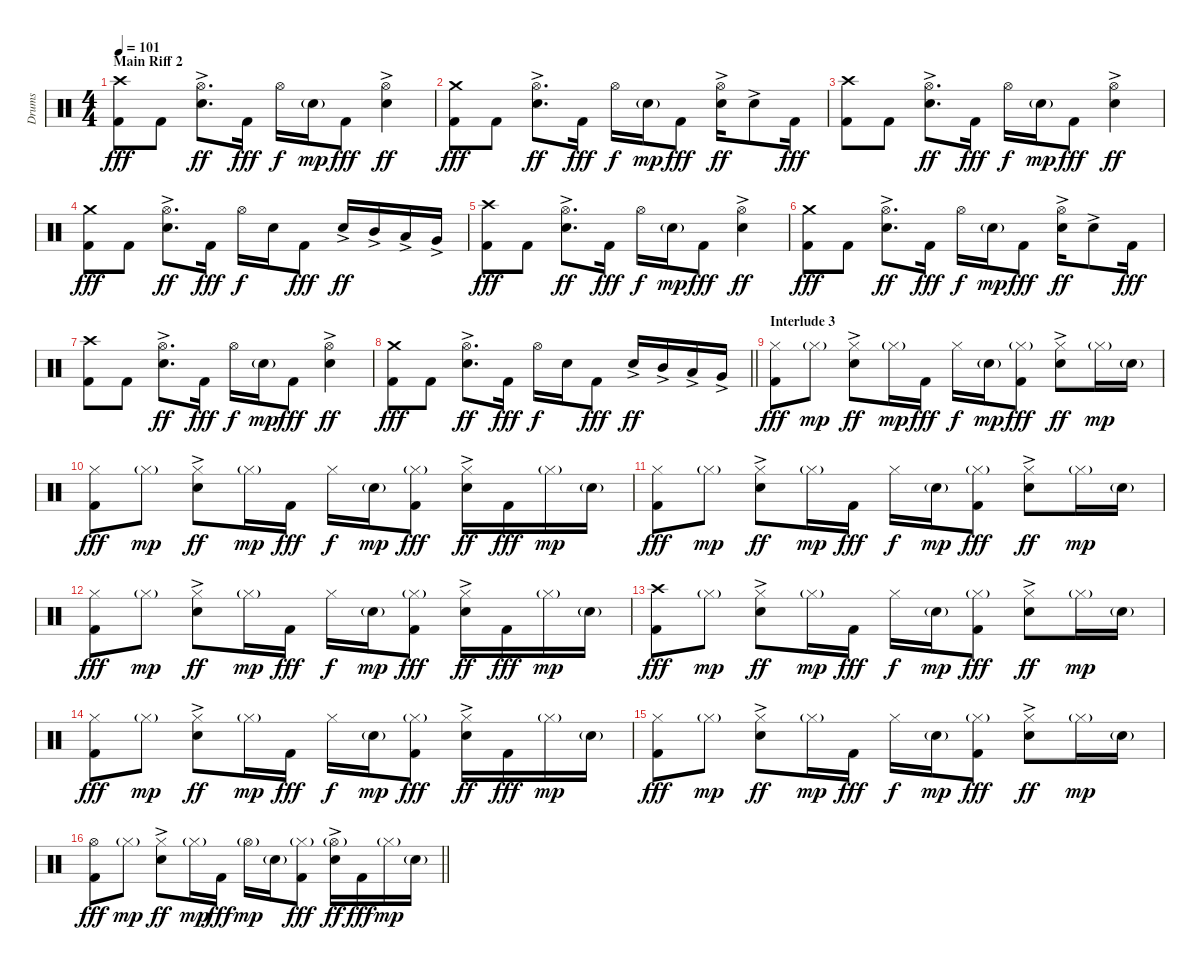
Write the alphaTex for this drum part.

\track ("Drums" "Drums") {instrument percussion}
\staff {score}
\articulation defaults
\ts (4 4)
\section ("" "Main Riff 2")
\tempo 101
\clef neutral
\ks c
("Crash high (hit)" "Kick (hit) 2").8{dy fff} "Kick (hit) 2".8 ("Hi-Hat (open)" "Electric Snare (hit)"{ac}).8{d dy ff} "Kick (hit) 2".16{dy fff} "Hi-Hat (open)".16{dy f} "Snare (hit) 2"{g}.16{dy mp} "Kick (hit) 2".8{dy fff} ("Hi-Hat (open)" "Electric Snare (hit)"{ac}).4{dy ff} |
("Crash medium (hit)" "Kick (hit) 2").8{dy fff} "Kick (hit) 2".8 ("Hi-Hat (open)" "Electric Snare (hit)"{ac}).8{d dy ff} "Kick (hit) 2".16{dy fff} "Hi-Hat (open)".16{dy f} "Snare (hit) 2"{g}.16{dy mp} "Kick (hit) 2".8{dy fff} ("Hi-Hat (open)" "Electric Snare (hit)"{ac}).16{dy ff} "Electric Snare (hit)"{ac}.8 "Kick (hit) 2".16{dy fff} |
("Crash high (hit)" "Kick (hit) 2").8 "Kick (hit) 2".8 ("Hi-Hat (open)" "Electric Snare (hit)"{ac}).8{d dy ff} "Kick (hit) 2".16{dy fff} "Hi-Hat (open)".16{dy f} "Snare (hit) 2"{g}.16{dy mp} "Kick (hit) 2".8{dy fff} ("Hi-Hat (open)" "Electric Snare (hit)"{ac}).4{dy ff} |
("Crash medium (hit)" "Kick (hit) 2").8{dy fff} "Kick (hit) 2".8 ("Hi-Hat (open)" "Electric Snare (hit)"{ac}).8{d dy ff} "Kick (hit) 2".16{dy fff} "Hi-Hat (open)".16{dy f} "Electric Snare (hit)".16 "Kick (hit) 2".8{dy fff} "Electric Snare (hit)"{ac}.16{dy ff} "Mid Tom (hit)"{ac}.16 "Low Tom (hit)"{ac}.16 "Very Low Tom (hit)"{ac}.16 |
("Crash high (hit)" "Kick (hit) 2").8{dy fff} "Kick (hit) 2".8 ("Hi-Hat (open)" "Electric Snare (hit)"{ac}).8{d dy ff} "Kick (hit) 2".16{dy fff} "Hi-Hat (open)".16{dy f} "Snare (hit) 2"{g}.16{dy mp} "Kick (hit) 2".8{dy fff} ("Hi-Hat (open)" "Electric Snare (hit)"{ac}).4{dy ff} |
("Crash medium (hit)" "Kick (hit) 2").8{dy fff} "Kick (hit) 2".8 ("Hi-Hat (open)" "Electric Snare (hit)"{ac}).8{d dy ff} "Kick (hit) 2".16{dy fff} "Hi-Hat (open)".16{dy f} "Snare (hit) 2"{g}.16{dy mp} "Kick (hit) 2".8{dy fff} ("Hi-Hat (open)" "Electric Snare (hit)"{ac}).16{dy ff} "Electric Snare (hit)"{ac}.8 "Kick (hit) 2".16{dy fff} |
("Crash high (hit)" "Kick (hit) 2").8 "Kick (hit) 2".8 ("Hi-Hat (open)" "Electric Snare (hit)"{ac}).8{d dy ff} "Kick (hit) 2".16{dy fff} "Hi-Hat (open)".16{dy f} "Snare (hit) 2"{g}.16{dy mp} "Kick (hit) 2".8{dy fff} ("Hi-Hat (open)" "Electric Snare (hit)"{ac}).4{dy ff} |
\barLineRight lightlight
("Crash medium (hit)" "Kick (hit) 2").8{dy fff} "Kick (hit) 2".8 ("Hi-Hat (open)" "Electric Snare (hit)"{ac}).8{d dy ff} "Kick (hit) 2".16{dy fff} "Hi-Hat (open)".16{dy f} "Electric Snare (hit)".16 "Kick (hit) 2".8{dy fff} "Electric Snare (hit)"{ac}.16{dy ff} "Mid Tom (hit)"{ac}.16 "Low Tom (hit)"{ac}.16 "Very Low Tom (hit)"{ac}.16 |
\section ("" "Interlude 3")
("Hi-Hat (closed)" "Kick (hit) 2").8{dy fff} "Hi-Hat (closed)"{g}.8{dy mp} ("Hi-Hat (closed)" "Electric Snare (hit)"{ac}).8{dy ff} "Hi-Hat (closed)"{g}.16{dy mp} "Kick (hit) 2".16{dy fff} "Hi-Hat (closed)".16{dy f} "Snare (hit) 2"{g}.16{dy mp} ("Hi-Hat (closed)"{g} "Kick (hit) 2").8{dy fff} ("Hi-Hat (closed)" "Electric Snare (hit)"{ac}).8{dy ff} "Hi-Hat (closed)"{g}.16{dy mp} "Snare (hit) 2"{g}.16 |
("Hi-Hat (closed)" "Kick (hit) 2").8{dy fff} "Hi-Hat (closed)"{g}.8{dy mp} ("Hi-Hat (closed)" "Electric Snare (hit)"{ac}).8{dy ff} "Hi-Hat (closed)"{g}.16{dy mp} "Kick (hit) 2".16{dy fff} "Hi-Hat (closed)".16{dy f} "Snare (hit) 2"{g}.16{dy mp} ("Hi-Hat (closed)"{g} "Kick (hit) 2").8{dy fff} ("Hi-Hat (closed)" "Electric Snare (hit)"{ac}).16{dy ff} "Kick (hit) 2".16{dy fff} "Hi-Hat (closed)"{g}.16{dy mp} "Snare (hit) 2"{g}.16 |
("Hi-Hat (closed)" "Kick (hit) 2").8{dy fff} "Hi-Hat (closed)"{g}.8{dy mp} ("Hi-Hat (closed)" "Electric Snare (hit)"{ac}).8{dy ff} "Hi-Hat (closed)"{g}.16{dy mp} "Kick (hit) 2".16{dy fff} "Hi-Hat (closed)".16{dy f} "Snare (hit) 2"{g}.16{dy mp} ("Hi-Hat (closed)"{g} "Kick (hit) 2").8{dy fff} ("Hi-Hat (closed)" "Electric Snare (hit)"{ac}).8{dy ff} "Hi-Hat (closed)"{g}.16{dy mp} "Snare (hit) 2"{g}.16 |
("Hi-Hat (closed)" "Kick (hit) 2").8{dy fff} "Hi-Hat (closed)"{g}.8{dy mp} ("Hi-Hat (closed)" "Electric Snare (hit)"{ac}).8{dy ff} "Hi-Hat (closed)"{g}.16{dy mp} "Kick (hit) 2".16{dy fff} "Hi-Hat (closed)".16{dy f} "Snare (hit) 2"{g}.16{dy mp} ("Hi-Hat (closed)"{g} "Kick (hit) 2").8{dy fff} ("Hi-Hat (closed)" "Electric Snare (hit)"{ac}).16{dy ff} "Kick (hit) 2".16{dy fff} "Hi-Hat (closed)"{g}.16{dy mp} "Snare (hit) 2"{g}.16 |
("Crash high (hit)" "Kick (hit) 2").8{dy fff} "Hi-Hat (closed)"{g}.8{dy mp} ("Hi-Hat (closed)" "Electric Snare (hit)"{ac}).8{dy ff} "Hi-Hat (closed)"{g}.16{dy mp} "Kick (hit) 2".16{dy fff} "Hi-Hat (closed)".16{dy f} "Snare (hit) 2"{g}.16{dy mp} ("Hi-Hat (closed)"{g} "Kick (hit) 2").8{dy fff} ("Hi-Hat (closed)" "Electric Snare (hit)"{ac}).8{dy ff} "Hi-Hat (closed)"{g}.16{dy mp} "Snare (hit) 2"{g}.16 |
("Hi-Hat (closed)" "Kick (hit) 2").8{dy fff} "Hi-Hat (closed)"{g}.8{dy mp} ("Hi-Hat (closed)" "Electric Snare (hit)"{ac}).8{dy ff} "Hi-Hat (closed)"{g}.16{dy mp} "Kick (hit) 2".16{dy fff} "Hi-Hat (closed)".16{dy f} "Snare (hit) 2"{g}.16{dy mp} ("Hi-Hat (closed)"{g} "Kick (hit) 2").8{dy fff} ("Hi-Hat (closed)" "Electric Snare (hit)"{ac}).16{dy ff} "Kick (hit) 2".16{dy fff} "Hi-Hat (closed)"{g}.16{dy mp} "Snare (hit) 2"{g}.16 |
("Hi-Hat (closed)" "Kick (hit) 2").8{dy fff} "Hi-Hat (closed)"{g}.8{dy mp} ("Hi-Hat (closed)" "Electric Snare (hit)"{ac}).8{dy ff} "Hi-Hat (closed)"{g}.16{dy mp} "Kick (hit) 2".16{dy fff} "Hi-Hat (closed)".16{dy f} "Snare (hit) 2"{g}.16{dy mp} ("Hi-Hat (closed)"{g} "Kick (hit) 2").8{dy fff} ("Hi-Hat (closed)" "Electric Snare (hit)"{ac}).8{dy ff} "Hi-Hat (closed)"{g}.16{dy mp} "Snare (hit) 2"{g}.16 |
\barLineRight lightlight
("Hi-Hat (open)" "Kick (hit) 2").8{dy fff} "Hi-Hat (closed)"{g}.8{dy mp} ("Hi-Hat (closed)" "Electric Snare (hit)"{ac}).8{dy ff} "Hi-Hat (closed)"{g}.16{dy mp} "Kick (hit) 2".16{dy fff} "Hi-Hat (open)"{g}.16{dy mp} "Snare (hit) 2"{g}.16 ("Hi-Hat (closed)"{g} "Kick (hit) 2").8{dy fff} ("Hi-Hat (open)"{g} "Electric Snare (hit)"{ac}).16{dy ff} "Kick (hit) 2".16{dy fff} "Hi-Hat (closed)"{g}.16{dy mp} "Snare (hit) 2"{g}.16
